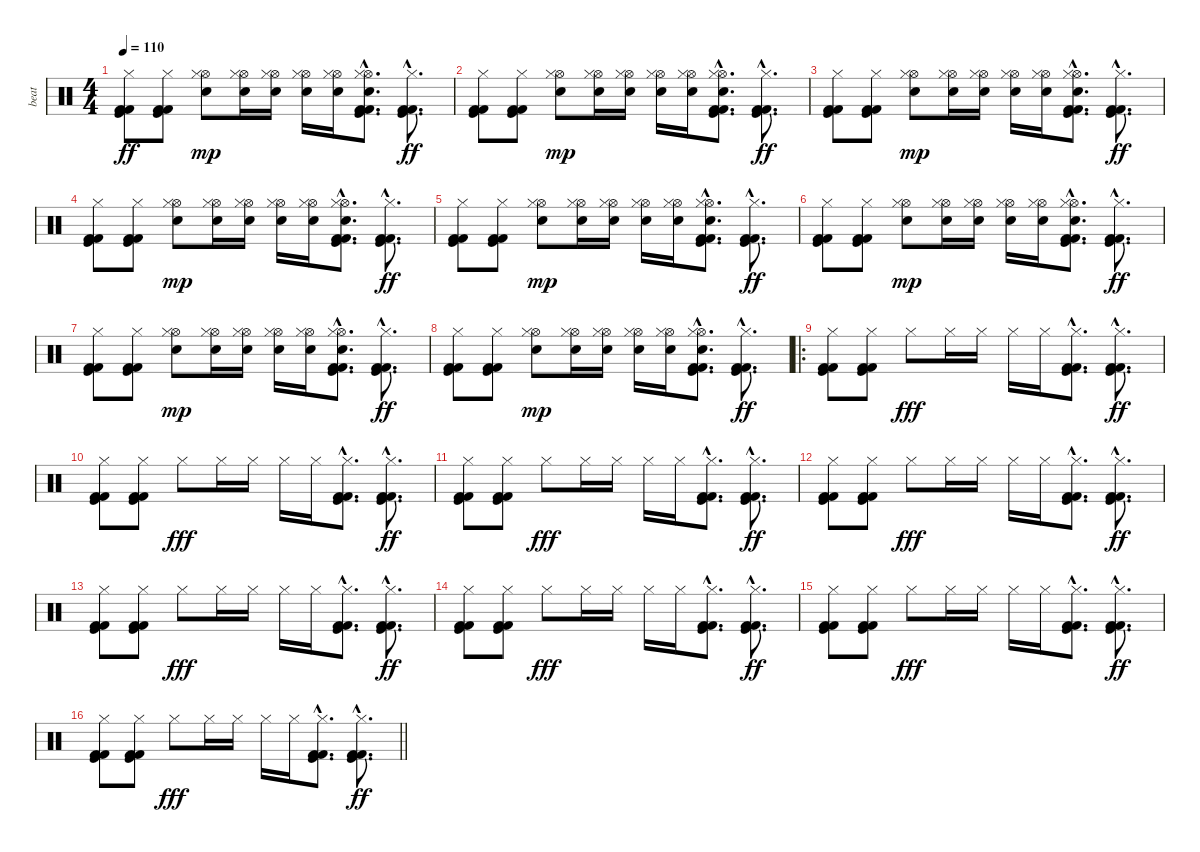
\track ("beat" "beat") {instrument percussion}
\staff {score}
\articulation defaults
\ts (4 4)
\tempo 110
\clef neutral
\ks c
("Kick (hit)" "Kick (hit) 2" "Kick (hit) 2" "Hi-Hat (closed)").8{dy ff} ("Kick (hit)" "Kick (hit) 2" "Kick (hit) 2" "Hi-Hat (closed)").8 ("Hi-Hat (open)" "Hi-Hat (closed)" "Snare (hit) 2").8{dy mp} ("Hi-Hat (open)" "Hi-Hat (closed)" "Snare (hit) 2").16 ("Hi-Hat (open)" "Hi-Hat (closed)" "Snare (hit) 2").16 ("Hi-Hat (open)" "Hi-Hat (closed)" "Snare (hit) 2").16 ("Hi-Hat (open)" "Hi-Hat (closed)" "Snare (hit) 2").16 ("Kick (hit)"{hac} "Kick (hit) 2"{hac} "Kick (hit) 2"{hac} "Hi-Hat (open)"{hac} "Hi-Hat (closed)"{hac} "Snare (hit) 2"{hac}).8{d} ("Kick (hit)"{hac} "Kick (hit) 2"{hac} "Kick (hit) 2"{hac} "Hi-Hat (closed)"{hac}).8{d dy ff} |
("Kick (hit)" "Kick (hit) 2" "Kick (hit) 2" "Hi-Hat (closed)").8 ("Kick (hit)" "Kick (hit) 2" "Kick (hit) 2" "Hi-Hat (closed)").8 ("Hi-Hat (open)" "Hi-Hat (closed)" "Snare (hit) 2").8{dy mp} ("Hi-Hat (open)" "Hi-Hat (closed)" "Snare (hit) 2").16 ("Hi-Hat (open)" "Hi-Hat (closed)" "Snare (hit) 2").16 ("Hi-Hat (open)" "Hi-Hat (closed)" "Snare (hit) 2").16 ("Hi-Hat (open)" "Hi-Hat (closed)" "Snare (hit) 2").16 ("Kick (hit)"{hac} "Kick (hit) 2"{hac} "Kick (hit) 2"{hac} "Hi-Hat (open)"{hac} "Hi-Hat (closed)"{hac} "Snare (hit) 2"{hac}).8{d} ("Kick (hit)"{hac} "Kick (hit) 2"{hac} "Kick (hit) 2"{hac} "Hi-Hat (closed)"{hac}).8{d dy ff} |
("Kick (hit)" "Kick (hit) 2" "Kick (hit) 2" "Hi-Hat (closed)").8 ("Kick (hit)" "Kick (hit) 2" "Kick (hit) 2" "Hi-Hat (closed)").8 ("Hi-Hat (open)" "Hi-Hat (closed)" "Snare (hit) 2").8{dy mp} ("Hi-Hat (open)" "Hi-Hat (closed)" "Snare (hit) 2").16 ("Hi-Hat (open)" "Hi-Hat (closed)" "Snare (hit) 2").16 ("Hi-Hat (open)" "Hi-Hat (closed)" "Snare (hit) 2").16 ("Hi-Hat (open)" "Hi-Hat (closed)" "Snare (hit) 2").16 ("Kick (hit)"{hac} "Kick (hit) 2"{hac} "Kick (hit) 2"{hac} "Hi-Hat (open)"{hac} "Hi-Hat (closed)"{hac} "Snare (hit) 2"{hac}).8{d} ("Kick (hit)"{hac} "Kick (hit) 2"{hac} "Kick (hit) 2"{hac} "Hi-Hat (closed)"{hac}).8{d dy ff} |
("Kick (hit)" "Kick (hit) 2" "Kick (hit) 2" "Hi-Hat (closed)").8 ("Kick (hit)" "Kick (hit) 2" "Kick (hit) 2" "Hi-Hat (closed)").8 ("Hi-Hat (open)" "Hi-Hat (closed)" "Snare (hit) 2").8{dy mp} ("Hi-Hat (open)" "Hi-Hat (closed)" "Snare (hit) 2").16 ("Hi-Hat (open)" "Hi-Hat (closed)" "Snare (hit) 2").16 ("Hi-Hat (open)" "Hi-Hat (closed)" "Snare (hit) 2").16 ("Hi-Hat (open)" "Hi-Hat (closed)" "Snare (hit) 2").16 ("Kick (hit)"{hac} "Kick (hit) 2"{hac} "Kick (hit) 2"{hac} "Hi-Hat (open)"{hac} "Hi-Hat (closed)"{hac} "Snare (hit) 2"{hac}).8{d} ("Kick (hit)"{hac} "Kick (hit) 2"{hac} "Kick (hit) 2"{hac} "Hi-Hat (closed)"{hac}).8{d dy ff} |
("Kick (hit)" "Kick (hit) 2" "Kick (hit) 2" "Hi-Hat (closed)").8 ("Kick (hit)" "Kick (hit) 2" "Kick (hit) 2" "Hi-Hat (closed)").8 ("Hi-Hat (open)" "Hi-Hat (closed)" "Snare (hit) 2").8{dy mp} ("Hi-Hat (open)" "Hi-Hat (closed)" "Snare (hit) 2").16 ("Hi-Hat (open)" "Hi-Hat (closed)" "Snare (hit) 2").16 ("Hi-Hat (open)" "Hi-Hat (closed)" "Snare (hit) 2").16 ("Hi-Hat (open)" "Hi-Hat (closed)" "Snare (hit) 2").16 ("Kick (hit)"{hac} "Kick (hit) 2"{hac} "Kick (hit) 2"{hac} "Hi-Hat (open)"{hac} "Hi-Hat (closed)"{hac} "Snare (hit) 2"{hac}).8{d} ("Kick (hit)"{hac} "Kick (hit) 2"{hac} "Kick (hit) 2"{hac} "Hi-Hat (closed)"{hac}).8{d dy ff} |
("Kick (hit)" "Kick (hit) 2" "Kick (hit) 2" "Hi-Hat (closed)").8 ("Kick (hit)" "Kick (hit) 2" "Kick (hit) 2" "Hi-Hat (closed)").8 ("Hi-Hat (open)" "Hi-Hat (closed)" "Snare (hit) 2").8{dy mp} ("Hi-Hat (open)" "Hi-Hat (closed)" "Snare (hit) 2").16 ("Hi-Hat (open)" "Hi-Hat (closed)" "Snare (hit) 2").16 ("Hi-Hat (open)" "Hi-Hat (closed)" "Snare (hit) 2").16 ("Hi-Hat (open)" "Hi-Hat (closed)" "Snare (hit) 2").16 ("Kick (hit)"{hac} "Kick (hit) 2"{hac} "Kick (hit) 2"{hac} "Hi-Hat (open)"{hac} "Hi-Hat (closed)"{hac} "Snare (hit) 2"{hac}).8{d} ("Kick (hit)"{hac} "Kick (hit) 2"{hac} "Kick (hit) 2"{hac} "Hi-Hat (closed)"{hac}).8{d dy ff} |
("Kick (hit)" "Kick (hit) 2" "Kick (hit) 2" "Hi-Hat (closed)").8 ("Kick (hit)" "Kick (hit) 2" "Kick (hit) 2" "Hi-Hat (closed)").8 ("Hi-Hat (open)" "Hi-Hat (closed)" "Snare (hit) 2").8{dy mp} ("Hi-Hat (open)" "Hi-Hat (closed)" "Snare (hit) 2").16 ("Hi-Hat (open)" "Hi-Hat (closed)" "Snare (hit) 2").16 ("Hi-Hat (open)" "Hi-Hat (closed)" "Snare (hit) 2").16 ("Hi-Hat (open)" "Hi-Hat (closed)" "Snare (hit) 2").16 ("Kick (hit)"{hac} "Kick (hit) 2"{hac} "Kick (hit) 2"{hac} "Hi-Hat (open)"{hac} "Hi-Hat (closed)"{hac} "Snare (hit) 2"{hac}).8{d} ("Kick (hit)"{hac} "Kick (hit) 2"{hac} "Kick (hit) 2"{hac} "Hi-Hat (closed)"{hac}).8{d dy ff} |
("Kick (hit)" "Kick (hit) 2" "Kick (hit) 2" "Hi-Hat (closed)").8 ("Kick (hit)" "Kick (hit) 2" "Kick (hit) 2" "Hi-Hat (closed)").8 ("Hi-Hat (open)" "Hi-Hat (closed)" "Snare (hit) 2").8{dy mp} ("Hi-Hat (open)" "Hi-Hat (closed)" "Snare (hit) 2").16 ("Hi-Hat (open)" "Hi-Hat (closed)" "Snare (hit) 2").16 ("Hi-Hat (open)" "Hi-Hat (closed)" "Snare (hit) 2").16 ("Hi-Hat (open)" "Hi-Hat (closed)" "Snare (hit) 2").16 ("Kick (hit)"{hac} "Kick (hit) 2"{hac} "Kick (hit) 2"{hac} "Hi-Hat (open)"{hac} "Hi-Hat (closed)"{hac} "Snare (hit) 2"{hac}).8{d} ("Kick (hit)"{hac} "Kick (hit) 2"{hac} "Kick (hit) 2"{hac} "Hi-Hat (closed)"{hac}).8{d dy ff} |
\ro
("Kick (hit)" "Kick (hit) 2" "Kick (hit) 2" "Hi-Hat (closed)").8 ("Kick (hit)" "Kick (hit) 2" "Kick (hit) 2" "Hi-Hat (closed)").8 "Hi-Hat (closed)".8{dy fff} "Hi-Hat (closed)".16 "Hi-Hat (closed)".16 "Hi-Hat (closed)".16 "Hi-Hat (closed)".16 ("Kick (hit)"{hac} "Kick (hit) 2"{hac} "Kick (hit) 2"{hac} "Hi-Hat (closed)"{hac}).8{d} ("Kick (hit)"{hac} "Kick (hit) 2"{hac} "Kick (hit) 2"{hac} "Hi-Hat (closed)"{hac}).8{d dy ff} |
("Kick (hit)" "Kick (hit) 2" "Kick (hit) 2" "Hi-Hat (closed)").8 ("Kick (hit)" "Kick (hit) 2" "Kick (hit) 2" "Hi-Hat (closed)").8 "Hi-Hat (closed)".8{dy fff} "Hi-Hat (closed)".16 "Hi-Hat (closed)".16 "Hi-Hat (closed)".16 "Hi-Hat (closed)".16 ("Kick (hit)"{hac} "Kick (hit) 2"{hac} "Kick (hit) 2"{hac} "Hi-Hat (closed)"{hac}).8{d} ("Kick (hit)"{hac} "Kick (hit) 2"{hac} "Kick (hit) 2"{hac} "Hi-Hat (closed)"{hac}).8{d dy ff} |
("Kick (hit)" "Kick (hit) 2" "Kick (hit) 2" "Hi-Hat (closed)").8 ("Kick (hit)" "Kick (hit) 2" "Kick (hit) 2" "Hi-Hat (closed)").8 "Hi-Hat (closed)".8{dy fff} "Hi-Hat (closed)".16 "Hi-Hat (closed)".16 "Hi-Hat (closed)".16 "Hi-Hat (closed)".16 ("Kick (hit)"{hac} "Kick (hit) 2"{hac} "Kick (hit) 2"{hac} "Hi-Hat (closed)"{hac}).8{d} ("Kick (hit)"{hac} "Kick (hit) 2"{hac} "Kick (hit) 2"{hac} "Hi-Hat (closed)"{hac}).8{d dy ff} |
("Kick (hit)" "Kick (hit) 2" "Kick (hit) 2" "Hi-Hat (closed)").8 ("Kick (hit)" "Kick (hit) 2" "Kick (hit) 2" "Hi-Hat (closed)").8 "Hi-Hat (closed)".8{dy fff} "Hi-Hat (closed)".16 "Hi-Hat (closed)".16 "Hi-Hat (closed)".16 "Hi-Hat (closed)".16 ("Kick (hit)"{hac} "Kick (hit) 2"{hac} "Kick (hit) 2"{hac} "Hi-Hat (closed)"{hac}).8{d} ("Kick (hit)"{hac} "Kick (hit) 2"{hac} "Kick (hit) 2"{hac} "Hi-Hat (closed)"{hac}).8{d dy ff} |
("Kick (hit)" "Kick (hit) 2" "Kick (hit) 2" "Hi-Hat (closed)").8 ("Kick (hit)" "Kick (hit) 2" "Kick (hit) 2" "Hi-Hat (closed)").8 "Hi-Hat (closed)".8{dy fff} "Hi-Hat (closed)".16 "Hi-Hat (closed)".16 "Hi-Hat (closed)".16 "Hi-Hat (closed)".16 ("Kick (hit)"{hac} "Kick (hit) 2"{hac} "Kick (hit) 2"{hac} "Hi-Hat (closed)"{hac}).8{d} ("Kick (hit)"{hac} "Kick (hit) 2"{hac} "Kick (hit) 2"{hac} "Hi-Hat (closed)"{hac}).8{d dy ff} |
("Kick (hit)" "Kick (hit) 2" "Kick (hit) 2" "Hi-Hat (closed)").8 ("Kick (hit)" "Kick (hit) 2" "Kick (hit) 2" "Hi-Hat (closed)").8 "Hi-Hat (closed)".8{dy fff} "Hi-Hat (closed)".16 "Hi-Hat (closed)".16 "Hi-Hat (closed)".16 "Hi-Hat (closed)".16 ("Kick (hit)"{hac} "Kick (hit) 2"{hac} "Kick (hit) 2"{hac} "Hi-Hat (closed)"{hac}).8{d} ("Kick (hit)"{hac} "Kick (hit) 2"{hac} "Kick (hit) 2"{hac} "Hi-Hat (closed)"{hac}).8{d dy ff} |
("Kick (hit)" "Kick (hit) 2" "Kick (hit) 2" "Hi-Hat (closed)").8 ("Kick (hit)" "Kick (hit) 2" "Kick (hit) 2" "Hi-Hat (closed)").8 "Hi-Hat (closed)".8{dy fff} "Hi-Hat (closed)".16 "Hi-Hat (closed)".16 "Hi-Hat (closed)".16 "Hi-Hat (closed)".16 ("Kick (hit)"{hac} "Kick (hit) 2"{hac} "Kick (hit) 2"{hac} "Hi-Hat (closed)"{hac}).8{d} ("Kick (hit)"{hac} "Kick (hit) 2"{hac} "Kick (hit) 2"{hac} "Hi-Hat (closed)"{hac}).8{d dy ff} |
\barLineRight lightlight
("Kick (hit)" "Kick (hit) 2" "Kick (hit) 2" "Hi-Hat (closed)").8 ("Kick (hit)" "Kick (hit) 2" "Kick (hit) 2" "Hi-Hat (closed)").8 "Hi-Hat (closed)".8{dy fff} "Hi-Hat (closed)".16 "Hi-Hat (closed)".16 "Hi-Hat (closed)".16 "Hi-Hat (closed)".16 ("Kick (hit)"{hac} "Kick (hit) 2"{hac} "Kick (hit) 2"{hac} "Hi-Hat (closed)"{hac}).8{d} ("Kick (hit)"{hac} "Kick (hit) 2"{hac} "Kick (hit) 2"{hac} "Hi-Hat (closed)"{hac}).8{d dy ff}
